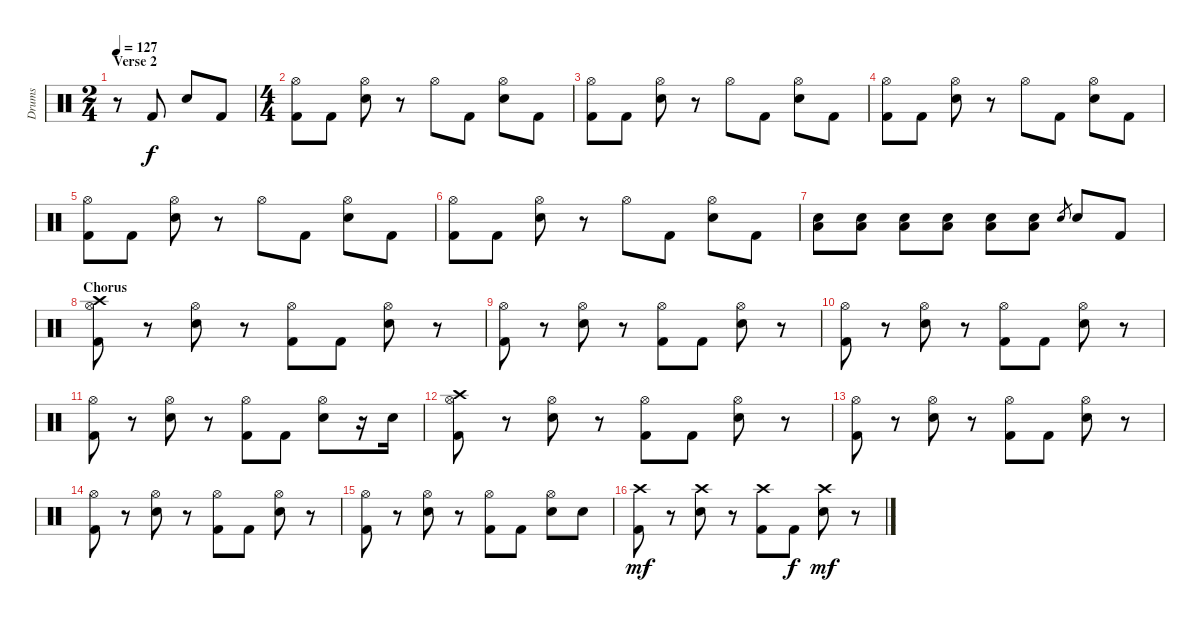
\track ("Drums" "Drums") {instrument percussion}
\staff {score}
\articulation defaults
\ts (2 4)
\section ("" "Verse 2")
\tempo 127
\clef neutral
\ks c
r.8{dy ppp} "Kick (hit) 2".8{dy f} "Electric Snare (hit)".8 "Kick (hit) 2".8 |
\ts (4 4)
("Hi-Hat (open)" "Kick (hit) 2").8 "Kick (hit) 2".8 ("Hi-Hat (open)" "Electric Snare (hit)").8 r.8 "Hi-Hat (open)".8 "Kick (hit) 2".8 ("Hi-Hat (open)" "Electric Snare (hit)").8 "Kick (hit) 2".8 |
("Hi-Hat (open)" "Kick (hit) 2").8 "Kick (hit) 2".8 ("Hi-Hat (open)" "Electric Snare (hit)").8 r.8 "Hi-Hat (open)".8 "Kick (hit) 2".8 ("Hi-Hat (open)" "Electric Snare (hit)").8 "Kick (hit) 2".8 |
("Hi-Hat (open)" "Kick (hit) 2").8 "Kick (hit) 2".8 ("Hi-Hat (open)" "Electric Snare (hit)").8 r.8 "Hi-Hat (open)".8 "Kick (hit) 2".8 ("Hi-Hat (open)" "Electric Snare (hit)").8 "Kick (hit) 2".8 |
("Hi-Hat (open)" "Kick (hit) 2").8 "Kick (hit) 2".8 ("Hi-Hat (open)" "Electric Snare (hit)").8 r.8 "Hi-Hat (open)".8 "Kick (hit) 2".8 ("Hi-Hat (open)" "Electric Snare (hit)").8 "Kick (hit) 2".8 |
("Hi-Hat (open)" "Kick (hit) 2").8 "Kick (hit) 2".8 ("Hi-Hat (open)" "Electric Snare (hit)").8 r.8 "Hi-Hat (open)".8 "Kick (hit) 2".8 ("Hi-Hat (open)" "Electric Snare (hit)").8 "Kick (hit) 2".8 |
("Low Floor Tom (hit)" "Electric Snare (hit)").8 ("Low Floor Tom (hit)" "Electric Snare (hit)").8 ("Low Floor Tom (hit)" "Electric Snare (hit)").8 ("Low Floor Tom (hit)" "Electric Snare (hit)").8 ("Low Floor Tom (hit)" "Electric Snare (hit)").8 ("Low Floor Tom (hit)" "Electric Snare (hit)").8 "Electric Snare (hit)".8{gr} "Electric Snare (hit)".8 "Kick (hit) 2".8 |
\section ("" "Chorus")
("Crash high (hit)" "Hi-Hat (open)" "Kick (hit) 2").8 r.8 ("Hi-Hat (open)" "Electric Snare (hit)").8 r.8 ("Hi-Hat (open)" "Kick (hit) 2").8 "Kick (hit) 2".8 ("Hi-Hat (open)" "Electric Snare (hit)").8 r.8 |
("Hi-Hat (open)" "Kick (hit) 2").8 r.8 ("Hi-Hat (open)" "Electric Snare (hit)").8 r.8 ("Hi-Hat (open)" "Kick (hit) 2").8 "Kick (hit) 2".8 ("Hi-Hat (open)" "Electric Snare (hit)").8 r.8 |
("Hi-Hat (open)" "Kick (hit) 2").8 r.8 ("Hi-Hat (open)" "Electric Snare (hit)").8 r.8 ("Hi-Hat (open)" "Kick (hit) 2").8 "Kick (hit) 2".8 ("Hi-Hat (open)" "Electric Snare (hit)").8 r.8 |
("Hi-Hat (open)" "Kick (hit) 2").8 r.8 ("Hi-Hat (open)" "Electric Snare (hit)").8 r.8 ("Hi-Hat (open)" "Kick (hit) 2").8 "Kick (hit) 2".8 ("Hi-Hat (open)" "Electric Snare (hit)").8 r.16 "Electric Snare (hit)".16 |
("Crash high (hit)" "Hi-Hat (open)" "Kick (hit) 2").8 r.8 ("Hi-Hat (open)" "Electric Snare (hit)").8 r.8 ("Hi-Hat (open)" "Kick (hit) 2").8 "Kick (hit) 2".8 ("Hi-Hat (open)" "Electric Snare (hit)").8 r.8 |
("Hi-Hat (open)" "Kick (hit) 2").8 r.8 ("Hi-Hat (open)" "Electric Snare (hit)").8 r.8 ("Hi-Hat (open)" "Kick (hit) 2").8 "Kick (hit) 2".8 ("Hi-Hat (open)" "Electric Snare (hit)").8 r.8 |
("Hi-Hat (open)" "Kick (hit) 2").8 r.8 ("Hi-Hat (open)" "Electric Snare (hit)").8 r.8 ("Hi-Hat (open)" "Kick (hit) 2").8 "Kick (hit) 2".8 ("Hi-Hat (open)" "Electric Snare (hit)").8 r.8 |
("Hi-Hat (open)" "Kick (hit) 2").8 r.8 ("Hi-Hat (open)" "Electric Snare (hit)").8 r.8 ("Hi-Hat (open)" "Kick (hit) 2").8 "Kick (hit) 2".8 ("Hi-Hat (open)" "Electric Snare (hit)").8 "Electric Snare (hit)".8 |
("Crash high (hit)" "Kick (hit) 2").8{dy mf} r.8 ("Crash high (hit)" "Electric Snare (hit)").8 r.8 ("Crash high (hit)" "Kick (hit) 2").8 "Kick (hit) 2".8{dy f} ("Crash high (hit)" "Electric Snare (hit)").8{dy mf} r.8
